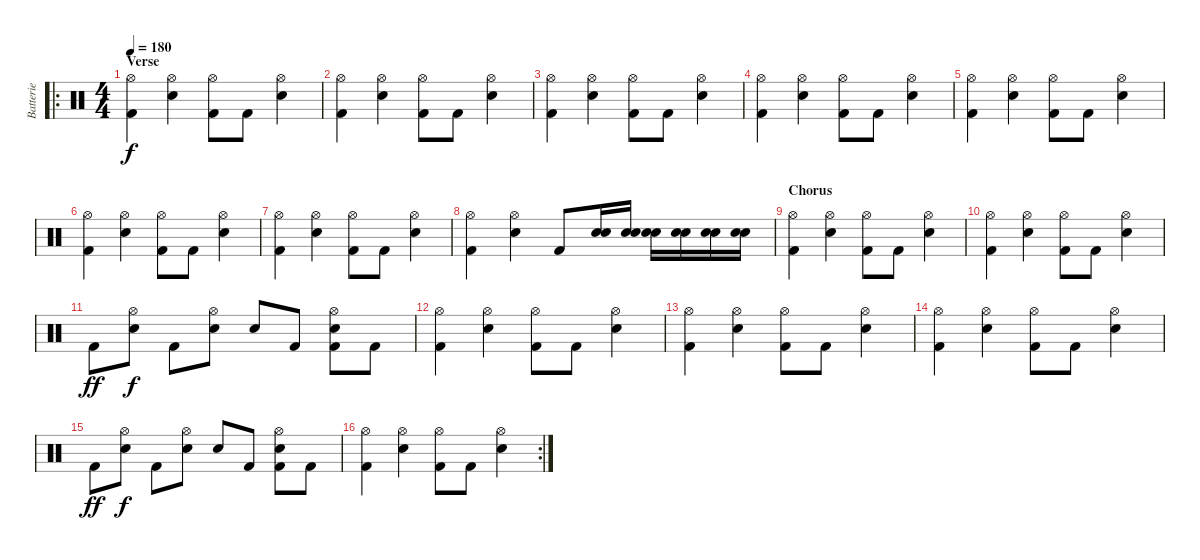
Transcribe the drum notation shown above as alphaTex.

\track ("Batterie" "Batterie") {instrument percussion}
\staff {score}
\articulation defaults
\ro
\ts (4 4)
\section ("" "Verse")
\tempo 180
\clef neutral
\ks c
("Hi-Hat (open)" "Kick (hit) 2").4{dy f} ("Hi-Hat (open)" "Electric Snare (hit)").4 ("Hi-Hat (open)" "Kick (hit) 2").8 "Kick (hit) 2".8 ("Hi-Hat (open)" "Electric Snare (hit)").4 |
("Hi-Hat (open)" "Kick (hit) 2").4 ("Hi-Hat (open)" "Electric Snare (hit)").4 ("Hi-Hat (open)" "Kick (hit) 2").8 "Kick (hit) 2".8 ("Hi-Hat (open)" "Electric Snare (hit)").4 |
("Hi-Hat (open)" "Kick (hit) 2").4 ("Hi-Hat (open)" "Electric Snare (hit)").4 ("Hi-Hat (open)" "Kick (hit) 2").8 "Kick (hit) 2".8 ("Hi-Hat (open)" "Electric Snare (hit)").4 |
("Hi-Hat (open)" "Kick (hit) 2").4 ("Hi-Hat (open)" "Electric Snare (hit)").4 ("Hi-Hat (open)" "Kick (hit) 2").8 "Kick (hit) 2".8 ("Hi-Hat (open)" "Electric Snare (hit)").4 |
("Hi-Hat (open)" "Kick (hit) 2").4 ("Hi-Hat (open)" "Electric Snare (hit)").4 ("Hi-Hat (open)" "Kick (hit) 2").8 "Kick (hit) 2".8 ("Hi-Hat (open)" "Electric Snare (hit)").4 |
("Hi-Hat (open)" "Kick (hit) 2").4 ("Hi-Hat (open)" "Electric Snare (hit)").4 ("Hi-Hat (open)" "Kick (hit) 2").8 "Kick (hit) 2".8 ("Hi-Hat (open)" "Electric Snare (hit)").4 |
("Hi-Hat (open)" "Kick (hit) 2").4 ("Hi-Hat (open)" "Electric Snare (hit)").4 ("Hi-Hat (open)" "Kick (hit) 2").8 "Kick (hit) 2".8 ("Hi-Hat (open)" "Electric Snare (hit)").4 |
("Hi-Hat (open)" "Kick (hit) 2").4 ("Hi-Hat (open)" "Electric Snare (hit)").4 "Kick (hit) 2".8 ("Electric Snare (hit)" "Electric Snare (hit)").16 ("Electric Snare (hit)" "Electric Snare (hit)").16 ("Electric Snare (hit)" "Electric Snare (hit)").16 ("Electric Snare (hit)" "Electric Snare (hit)").16 ("Electric Snare (hit)" "Electric Snare (hit)").16 ("Electric Snare (hit)" "Electric Snare (hit)").16 |
\section ("" "Chorus")
("Hi-Hat (open)" "Kick (hit) 2").4 ("Hi-Hat (open)" "Electric Snare (hit)").4 ("Hi-Hat (open)" "Kick (hit) 2").8 "Kick (hit) 2".8 ("Hi-Hat (open)" "Electric Snare (hit)").4 |
("Hi-Hat (open)" "Kick (hit) 2").4 ("Hi-Hat (open)" "Electric Snare (hit)").4 ("Hi-Hat (open)" "Kick (hit) 2").8 "Kick (hit) 2".8 ("Hi-Hat (open)" "Electric Snare (hit)").4 |
"Kick (hit) 2".8{dy ff} ("Hi-Hat (open)" "Electric Snare (hit)").8{dy f} "Kick (hit) 2".8 ("Hi-Hat (open)" "Electric Snare (hit)").8 "Electric Snare (hit)".8 "Kick (hit) 2".8 ("Hi-Hat (open)" "Electric Snare (hit)" "Kick (hit) 2").8 "Kick (hit) 2".8 |
("Hi-Hat (open)" "Kick (hit) 2").4 ("Hi-Hat (open)" "Electric Snare (hit)").4 ("Hi-Hat (open)" "Kick (hit) 2").8 "Kick (hit) 2".8 ("Hi-Hat (open)" "Electric Snare (hit)").4 |
("Hi-Hat (open)" "Kick (hit) 2").4 ("Hi-Hat (open)" "Electric Snare (hit)").4 ("Hi-Hat (open)" "Kick (hit) 2").8 "Kick (hit) 2".8 ("Hi-Hat (open)" "Electric Snare (hit)").4 |
("Hi-Hat (open)" "Kick (hit) 2").4 ("Hi-Hat (open)" "Electric Snare (hit)").4 ("Hi-Hat (open)" "Kick (hit) 2").8 "Kick (hit) 2".8 ("Hi-Hat (open)" "Electric Snare (hit)").4 |
"Kick (hit) 2".8{dy ff} ("Hi-Hat (open)" "Electric Snare (hit)").8{dy f} "Kick (hit) 2".8 ("Hi-Hat (open)" "Electric Snare (hit)").8 "Electric Snare (hit)".8 "Kick (hit) 2".8 ("Hi-Hat (open)" "Electric Snare (hit)" "Kick (hit) 2").8 "Kick (hit) 2".8 |
\rc 2
("Hi-Hat (open)" "Kick (hit) 2").4 ("Hi-Hat (open)" "Electric Snare (hit)").4 ("Hi-Hat (open)" "Kick (hit) 2").8 "Kick (hit) 2".8 ("Hi-Hat (open)" "Electric Snare (hit)").4
